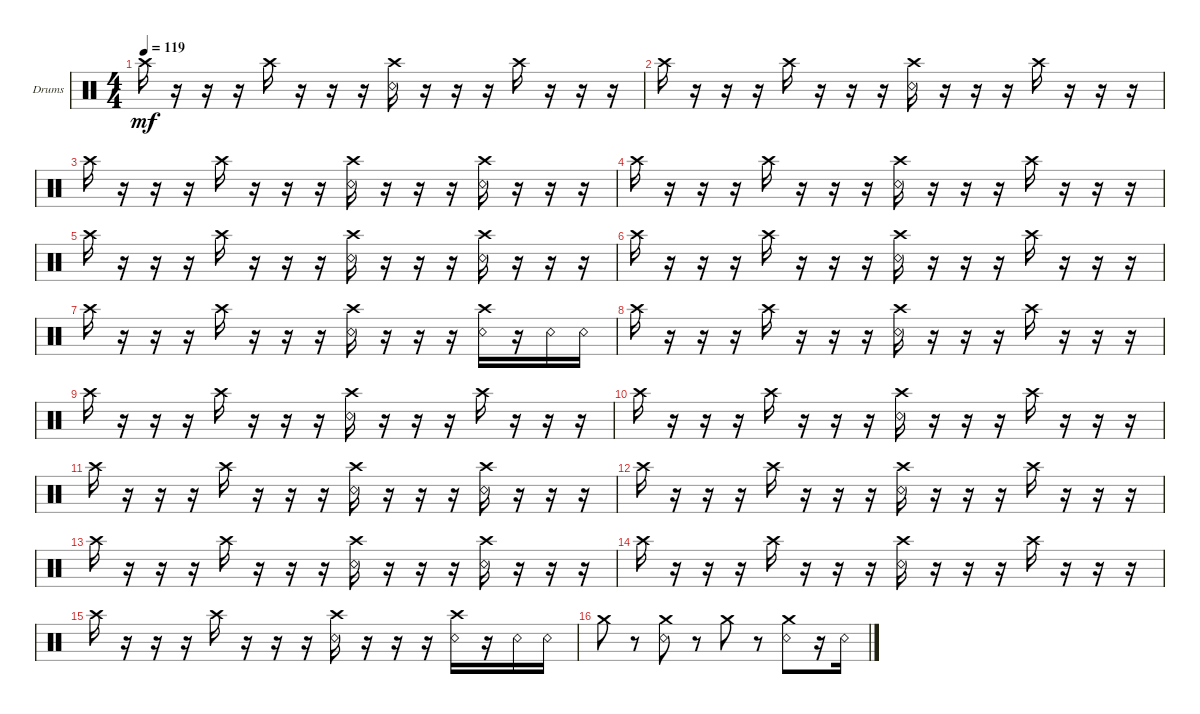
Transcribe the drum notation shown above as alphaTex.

\defaultSystemsLayout 4
\bracketExtendMode groupsimilarinstruments
\firstSystemTrackNameOrientation horizontal
\otherSystemsTrackNameOrientation horizontal
\track ("Drumkit" "Drums") {instrument percussion}
\staff {score}
\articulation defaults
\ts (4 4)
\tempo 119
\clef neutral
\scale
0.333333
\ks c "Crash high (hit)".16{dy mf}
r.16 r.16 r.16 "Crash high (hit)".16 r.16 r.16 r.16 ("Snare (rim shot)" "Crash high (hit)").16 r.16 r.16 r.16 "Crash high (hit)".16 r.16 r.16 r.16 |
\scale
0.333333 "Crash high (hit)".16 r.16 r.16 r.16 "Crash high (hit)".16 r.16 r.16 r.16 ("Snare (rim shot)" "Crash high (hit)").16 r.16 r.16 r.16 "Crash high (hit)".16 r.16 r.16 r.16 |
\scale
0.333333 "Crash high (hit)".16 r.16 r.16 r.16 "Crash high (hit)".16 r.16 r.16 r.16 ("Snare (rim shot)" "Crash high (hit)").16 r.16 r.16 r.16 ("Crash high (hit)" "Snare (rim shot)").16 r.16 r.16 r.16 |
\scale
0.333333 "Crash high (hit)".16 r.16 r.16 r.16 "Crash high (hit)".16 r.16 r.16 r.16 ("Snare (rim shot)" "Crash high (hit)").16 r.16 r.16 r.16 "Crash high (hit)".16 r.16 r.16 r.16 |
\scale
0.333333 "Crash high (hit)".16 r.16 r.16 r.16 "Crash high (hit)".16 r.16 r.16 r.16 ("Snare (rim shot)" "Crash high (hit)").16 r.16 r.16 r.16 ("Crash high (hit)" "Snare (rim shot)").16 r.16 r.16 r.16 |
\scale
0.333333 "Crash high (hit)".16 r.16 r.16 r.16 "Crash high (hit)".16 r.16 r.16 r.16 ("Snare (rim shot)" "Crash high (hit)").16 r.16 r.16 r.16 "Crash high (hit)".16 r.16 r.16 r.16 |
\scale
0.333333 "Crash high (hit)".16 r.16 r.16 r.16 "Crash high (hit)".16 r.16 r.16 r.16 ("Snare (rim shot)" "Crash high (hit)").16 r.16 r.16 r.16 ("Crash high (hit)" "Snare (rim shot)").16 r.16 "Snare (rim shot)".16 "Snare (rim shot)".16 |
\scale
0.333333 "Crash high (hit)".16 r.16 r.16 r.16 "Crash high (hit)".16 r.16 r.16 r.16 ("Snare (rim shot)" "Crash high (hit)").16 r.16 r.16 r.16 "Crash high (hit)".16 r.16 r.16 r.16 |
\scale
0.333333 "Crash high (hit)".16 r.16 r.16 r.16 "Crash high (hit)".16 r.16 r.16 r.16 ("Snare (rim shot)" "Crash high (hit)").16 r.16 r.16 r.16 "Crash high (hit)".16 r.16 r.16 r.16 |
\scale
0.333333 "Crash high (hit)".16 r.16 r.16 r.16 "Crash high (hit)".16 r.16 r.16 r.16 ("Snare (rim shot)" "Crash high (hit)").16 r.16 r.16 r.16 "Crash high (hit)".16 r.16 r.16 r.16 |
\scale
0.333333 "Crash high (hit)".16 r.16 r.16 r.16 "Crash high (hit)".16 r.16 r.16 r.16 ("Snare (rim shot)" "Crash high (hit)").16 r.16 r.16 r.16 ("Crash high (hit)" "Snare (rim shot)").16 r.16 r.16 r.16 |
\scale
0.333333 "Crash high (hit)".16 r.16 r.16 r.16 "Crash high (hit)".16 r.16 r.16 r.16 ("Snare (rim shot)" "Crash high (hit)").16 r.16 r.16 r.16 "Crash high (hit)".16 r.16 r.16 r.16 |
\scale
0.333333 "Crash high (hit)".16 r.16 r.16 r.16 "Crash high (hit)".16 r.16 r.16 r.16 ("Snare (rim shot)" "Crash high (hit)").16 r.16 r.16 r.16 ("Crash high (hit)" "Snare (rim shot)").16 r.16 r.16 r.16 |
\scale
0.333333 "Crash high (hit)".16 r.16 r.16 r.16 "Crash high (hit)".16 r.16 r.16 r.16 ("Snare (rim shot)" "Crash high (hit)").16 r.16 r.16 r.16 "Crash high (hit)".16 r.16 r.16 r.16 |
\scale
0.333333 "Crash high (hit)".16 r.16 r.16 r.16 "Crash high (hit)".16 r.16 r.16 r.16 ("Snare (rim shot)" "Crash high (hit)").16 r.16 r.16 r.16 ("Crash high (hit)" "Snare (rim shot)").16 r.16 "Snare (rim shot)".16 "Snare (rim shot)".16 |
\scale
0.333333 "Crash medium (hit)".8 r.8 ("Snare (rim shot)" "Crash medium (hit)").8 r.8 "Crash medium (hit)".8 r.8 ("Snare (rim shot)" "Crash medium (hit)").8 r.16 "Snare (rim shot)".16
